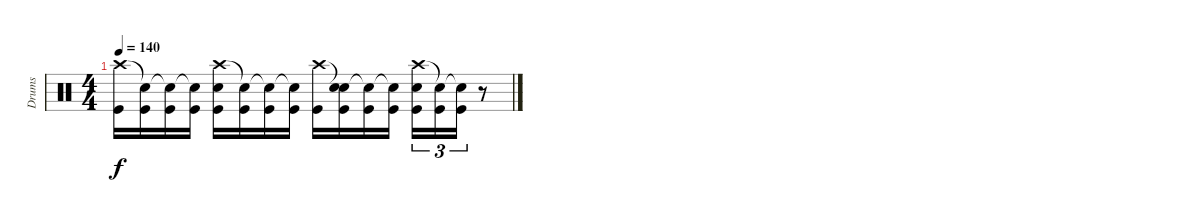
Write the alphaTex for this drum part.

\track ("Drums" "Drums") {instrument percussion}
\staff {score}
\articulation defaults
\ts (4 4)
\tempo 140
\clef neutral
\ks c
("Crash high (hit)" "Kick (hit)").16{dy f} ("Snare (hit)"{t} "Kick (hit)").16 ("Snare (hit)"{t} "Kick (hit)").16 ("Snare (hit)"{t} "Kick (hit)").16 ("Crash high (hit)" "Electric Snare (hit)" "Kick (hit)").16 ("Snare (hit)"{t} "Kick (hit)").16 ("Snare (hit)"{t} "Kick (hit)").16 ("Snare (hit)"{t} "Kick (hit)").16 ("Crash high (hit)" "Kick (hit)").16 ("Snare (hit)"{t} "Electric Snare (hit)" "Kick (hit)").16 ("Snare (hit)"{t} "Kick (hit)").16 ("Snare (hit)"{t} "Kick (hit)").16 ("Crash high (hit)" "Electric Snare (hit)" "Kick (hit)").16{tu (3 2)} ("Snare (hit)"{t} "Kick (hit)").16{tu (3 2)} ("Snare (hit)"{t} "Kick (hit)").16{tu (3 2)} r.8
